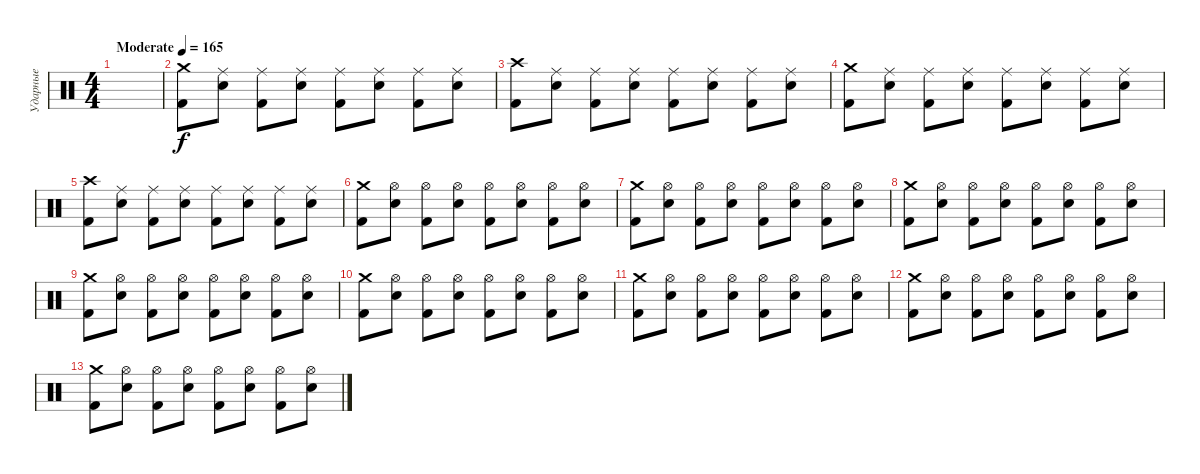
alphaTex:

\track ("Ударные" "Ударные") {instrument percussion}
\staff {score}
\articulation defaults
\ts (4 4)
\tempo (165 "Moderate")
\clef neutral
\ks c
|
("Crash medium (hit)" "Kick (hit) 2").8 ("Ride (middle)" "Snare (hit) 2").8 ("Ride (middle)" "Kick (hit) 2").8 ("Ride (middle)" "Snare (hit) 2").8 ("Ride (middle)" "Kick (hit) 2").8 ("Ride (middle)" "Snare (hit) 2").8 ("Ride (middle)" "Kick (hit) 2").8 ("Ride (middle)" "Snare (hit) 2").8 |
("Crash high (hit)" "Kick (hit) 2").8 ("Ride (middle)" "Snare (hit) 2").8 ("Ride (middle)" "Kick (hit) 2").8 ("Ride (middle)" "Snare (hit) 2").8 ("Ride (middle)" "Kick (hit) 2").8 ("Ride (middle)" "Snare (hit) 2").8 ("Ride (middle)" "Kick (hit) 2").8 ("Ride (middle)" "Snare (hit) 2").8 |
("Crash medium (hit)" "Kick (hit) 2").8 ("Ride (middle)" "Snare (hit) 2").8 ("Ride (middle)" "Kick (hit) 2").8 ("Ride (middle)" "Snare (hit) 2").8 ("Ride (middle)" "Kick (hit) 2").8 ("Ride (middle)" "Snare (hit) 2").8 ("Ride (middle)" "Kick (hit) 2").8 ("Ride (middle)" "Snare (hit) 2").8 |
("Crash high (hit)" "Kick (hit) 2").8 ("Ride (middle)" "Snare (hit) 2").8 ("Ride (middle)" "Kick (hit) 2").8 ("Ride (middle)" "Snare (hit) 2").8 ("Ride (middle)" "Kick (hit) 2").8 ("Ride (middle)" "Snare (hit) 2").8 ("Ride (middle)" "Kick (hit) 2").8 ("Ride (middle)" "Snare (hit) 2").8 |
("Crash medium (hit)" "Kick (hit) 2").8 ("Hi-Hat (open)" "Snare (hit) 2").8 ("Hi-Hat (open)" "Kick (hit) 2").8 ("Hi-Hat (open)" "Snare (hit) 2").8 ("Hi-Hat (open)" "Kick (hit) 2").8 ("Hi-Hat (open)" "Snare (hit) 2").8 ("Hi-Hat (open)" "Kick (hit) 2").8 ("Hi-Hat (open)" "Snare (hit) 2").8 |
("Crash medium (hit)" "Kick (hit) 2").8 ("Hi-Hat (open)" "Snare (hit) 2").8 ("Hi-Hat (open)" "Kick (hit) 2").8 ("Hi-Hat (open)" "Snare (hit) 2").8 ("Hi-Hat (open)" "Kick (hit) 2").8 ("Hi-Hat (open)" "Snare (hit) 2").8 ("Hi-Hat (open)" "Kick (hit) 2").8 ("Hi-Hat (open)" "Snare (hit) 2").8 |
("Crash medium (hit)" "Kick (hit) 2").8 ("Hi-Hat (open)" "Snare (hit) 2").8 ("Hi-Hat (open)" "Kick (hit) 2").8 ("Hi-Hat (open)" "Snare (hit) 2").8 ("Hi-Hat (open)" "Kick (hit) 2").8 ("Hi-Hat (open)" "Snare (hit) 2").8 ("Hi-Hat (open)" "Kick (hit) 2").8 ("Hi-Hat (open)" "Snare (hit) 2").8 |
("Crash medium (hit)" "Kick (hit) 2").8 ("Hi-Hat (open)" "Snare (hit) 2").8 ("Hi-Hat (open)" "Kick (hit) 2").8 ("Hi-Hat (open)" "Snare (hit) 2").8 ("Hi-Hat (open)" "Kick (hit) 2").8 ("Hi-Hat (open)" "Snare (hit) 2").8 ("Hi-Hat (open)" "Kick (hit) 2").8 ("Hi-Hat (open)" "Snare (hit) 2").8 |
("Crash medium (hit)" "Kick (hit) 2").8 ("Hi-Hat (open)" "Snare (hit) 2").8 ("Hi-Hat (open)" "Kick (hit) 2").8 ("Hi-Hat (open)" "Snare (hit) 2").8 ("Hi-Hat (open)" "Kick (hit) 2").8 ("Hi-Hat (open)" "Snare (hit) 2").8 ("Hi-Hat (open)" "Kick (hit) 2").8 ("Hi-Hat (open)" "Snare (hit) 2").8 |
("Crash medium (hit)" "Kick (hit) 2").8 ("Hi-Hat (open)" "Snare (hit) 2").8 ("Hi-Hat (open)" "Kick (hit) 2").8 ("Hi-Hat (open)" "Snare (hit) 2").8 ("Hi-Hat (open)" "Kick (hit) 2").8 ("Hi-Hat (open)" "Snare (hit) 2").8 ("Hi-Hat (open)" "Kick (hit) 2").8 ("Hi-Hat (open)" "Snare (hit) 2").8 |
("Crash medium (hit)" "Kick (hit) 2").8 ("Hi-Hat (open)" "Snare (hit) 2").8 ("Hi-Hat (open)" "Kick (hit) 2").8 ("Hi-Hat (open)" "Snare (hit) 2").8 ("Hi-Hat (open)" "Kick (hit) 2").8 ("Hi-Hat (open)" "Snare (hit) 2").8 ("Hi-Hat (open)" "Kick (hit) 2").8 ("Hi-Hat (open)" "Snare (hit) 2").8 |
("Crash medium (hit)" "Kick (hit) 2").8 ("Hi-Hat (open)" "Snare (hit) 2").8 ("Hi-Hat (open)" "Kick (hit) 2").8 ("Hi-Hat (open)" "Snare (hit) 2").8 ("Hi-Hat (open)" "Kick (hit) 2").8 ("Hi-Hat (open)" "Snare (hit) 2").8 ("Hi-Hat (open)" "Kick (hit) 2").8 ("Hi-Hat (open)" "Snare (hit) 2").8
